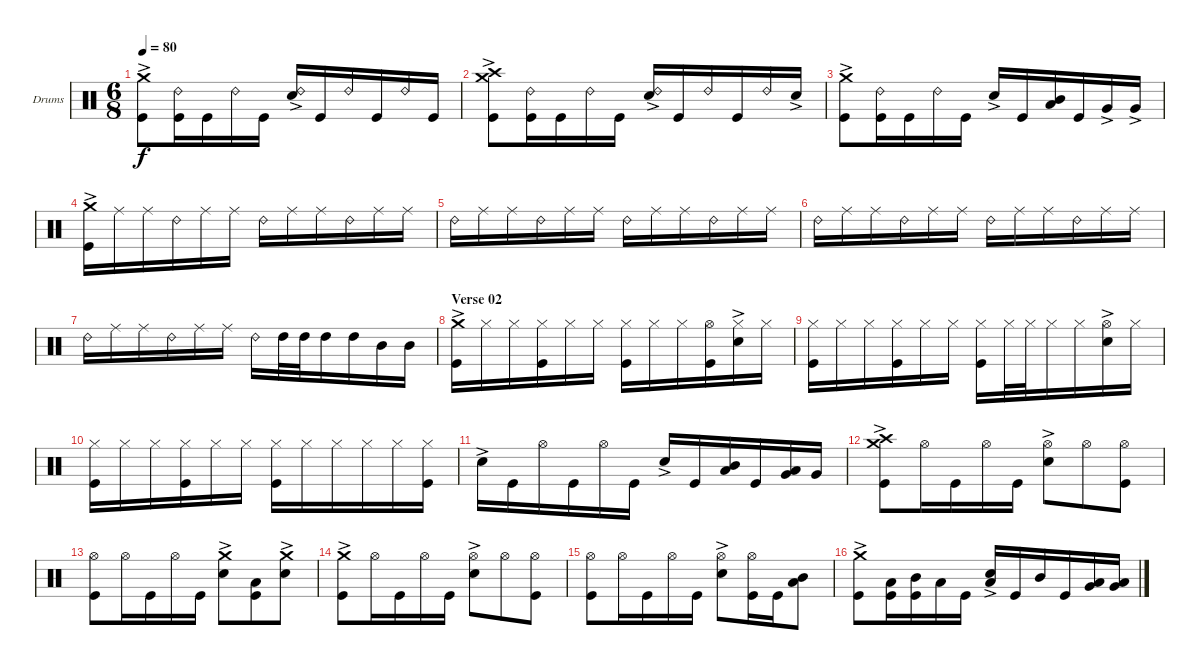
\defaultSystemsLayout 4
\bracketExtendMode groupsimilarinstruments
\firstSystemTrackNameOrientation horizontal
\otherSystemsTrackNameOrientation horizontal
\track ("Drumkit" "Drums") {instrument percussion}
\staff {score}
\articulation defaults
\ts (6 8)
\tempo 80
\clef neutral
\ks c
("Crash medium (hit)"{ac} "Kick (hit)").8{dy f} ("Ride (bell) 2" "Kick (hit)").16 "Kick (hit)".16 "Ride (bell) 2".16 "Kick (hit)".16 ("Ride (bell) 2" "Snare (hit) 2"{ac}).16 "Kick (hit)".16 "Ride (bell) 2".16 "Kick (hit)".16 "Ride (bell) 2".16 "Kick (hit)".16 |
("Crash medium (hit)"{ac} "Crash high (hit)" "Kick (hit)").8 ("Ride (bell) 2" "Kick (hit)").16 "Kick (hit)".16 "Ride (bell) 2".16 "Kick (hit)".16 ("Ride (bell) 2" "Snare (hit) 2"{ac}).16 "Kick (hit)".16 "Ride (bell) 2".16 "Kick (hit)".16 "Ride (bell) 2".16 "Snare (hit) 2"{ac}.16 |
("Crash medium (hit)"{ac} "Kick (hit)").8 ("Ride (bell) 2" "Kick (hit)").16 "Kick (hit)".16 "Ride (bell) 2".16 "Kick (hit)".16 "Snare (hit) 2"{ac}.16 "Kick (hit)".16 ("Mid Tom (hit)" "Low Tom (hit)").16 "Kick (hit)".16 "Very Low Tom (hit)"{ac}.16 "Very Low Tom (hit)"{ac}.16 |
("Crash medium (hit)"{ac} "Kick (hit)").16 "Ride (middle)".16 "Ride (middle)".16 "Ride (bell) 2".16 "Ride (middle)".16 "Ride (middle)".16 "Ride (bell) 2".16 "Ride (middle)".16 "Ride (middle)".16 "Ride (bell) 2".16 "Ride (middle)".16 "Ride (middle)".16 |
"Ride (bell) 2".16 "Ride (middle)".16 "Ride (middle)".16 "Ride (bell) 2".16 "Ride (middle)".16 "Ride (middle)".16 "Ride (bell) 2".16 "Ride (middle)".16 "Ride (middle)".16 "Ride (bell) 2".16 "Ride (middle)".16 "Ride (middle)".16 |
\scale
0.345779 "Ride (bell) 2".16 "Ride (middle)".16 "Ride (middle)".16 "Ride (bell) 2".16 "Ride (middle)".16 "Ride (middle)".16 "Ride (bell) 2".16 "Ride (middle)".16 "Ride (middle)".16 "Ride (bell) 2".16 "Ride (middle)".16 "Ride (middle)".16 |
\scale
0.342532 "Ride (bell) 2".16 "Ride (middle)".16 "Ride (middle)".16 "Ride (bell) 2".16 "Ride (middle)".16 "Ride (middle)".16 "Ride (bell) 2".16 "High Tom (hit)".32 "High Tom (hit)".32 "High Tom (hit)".16 "High Tom (hit)".16 "Mid Tom (hit)".16 "Mid Tom (hit)".16 |
\section ("" "Verse 02")
\scale
0.311688 ("Crash medium (hit)"{ac} "Kick (hit)").16 "Hi-Hat (closed)".16 "Hi-Hat (closed)".16 ("Hi-Hat (closed)" "Kick (hit)").16 "Hi-Hat (closed)".16 "Hi-Hat (closed)".16 ("Hi-Hat (closed)" "Kick (hit)").16 "Hi-Hat (closed)".16 "Hi-Hat (closed)".16 ("Kick (hit)" "Hi-Hat (open)").16 ("Hi-Hat (closed)" "Snare (hit) 2"{ac}).16 "Hi-Hat (closed)".16 |
("Hi-Hat (closed)" "Kick (hit)").16 "Hi-Hat (closed)".16 "Hi-Hat (closed)".16 ("Hi-Hat (closed)" "Kick (hit)").16 "Hi-Hat (closed)".16 "Hi-Hat (closed)".16 ("Hi-Hat (closed)" "Kick (hit)").16 "Hi-Hat (closed)".32 "Hi-Hat (closed)".32 "Hi-Hat (closed)".16 "Hi-Hat (closed)".16 ("Hi-Hat (open)" "Snare (hit) 2"{ac}).16 "Hi-Hat (closed)".16 |
("Hi-Hat (closed)" "Kick (hit)").16 "Hi-Hat (closed)".16 "Hi-Hat (closed)".16 ("Hi-Hat (closed)" "Kick (hit)").16 "Hi-Hat (closed)".16 "Hi-Hat (closed)".16 ("Hi-Hat (closed)" "Kick (hit)").16 "Hi-Hat (closed)".16 "Hi-Hat (closed)".16 "Hi-Hat (closed)".16 "Hi-Hat (closed)".16 ("Hi-Hat (closed)" "Kick (hit)").16 |
"Snare (hit) 2"{ac}.16 "Kick (hit)".16 "Hi-Hat (open)".16 "Kick (hit)".16 "Hi-Hat (open)".16 "Kick (hit)".16 "Snare (hit) 2"{ac}.16 "Kick (hit)".16 ("Mid Tom (hit)" "Low Tom (hit)").16 "Kick (hit)".16 ("Low Tom (hit)" "Very Low Tom (hit)").16 "Very Low Tom (hit)".16 |
("Crash medium (hit)"{ac} "Crash high (hit)" "Kick (hit)").8 "Hi-Hat (open)".16 "Kick (hit)".16 "Hi-Hat (open)".16 "Kick (hit)".16 ("Hi-Hat (open)" "Snare (hit) 2"{ac}).8 "Hi-Hat (open)".8 ("Hi-Hat (open)" "Kick (hit)").8 |
("Hi-Hat (open)" "Kick (hit)").8 "Hi-Hat (open)".16 "Kick (hit)".16 "Hi-Hat (open)".16 "Kick (hit)".16 ("Crash medium (hit)"{ac} "Snare (hit) 2"{ac}).8 ("Low Tom (hit)" "Kick (hit)").8 ("Crash medium (hit)"{ac} "Snare (hit) 2"{ac}).8 |
("Crash medium (hit)"{ac} "Kick (hit)").8 "Hi-Hat (open)".16 "Kick (hit)".16 "Hi-Hat (open)".16 "Kick (hit)".16 ("Hi-Hat (open)" "Snare (hit) 2"{ac}).8 "Hi-Hat (open)".8 ("Hi-Hat (open)" "Kick (hit)").8 |
("Hi-Hat (open)" "Kick (hit)").8 "Hi-Hat (open)".16 "Kick (hit)".16 "Hi-Hat (open)".16 "Kick (hit)".16 ("Hi-Hat (open)" "Snare (hit) 2"{ac}).8 ("Hi-Hat (open)" "Kick (hit)").16 "Kick (hit)".16 ("Mid Tom (hit)" "Low Tom (hit)").8 |
("Crash medium (hit)"{ac} "Kick (hit)").8 ("Low Tom (hit)" "Kick (hit)").16 ("Mid Tom (hit)" "Kick (hit)").16 "Low Tom (hit)".16 "Kick (hit)".16 ("Snare (hit) 2"{ac} "Low Tom (hit)").16 "Kick (hit)".16 "Mid Tom (hit)".16 "Kick (hit)".16 ("Low Tom (hit)" "Very Low Tom (hit)").16 ("Low Tom (hit)" "Very Low Tom (hit)").16
